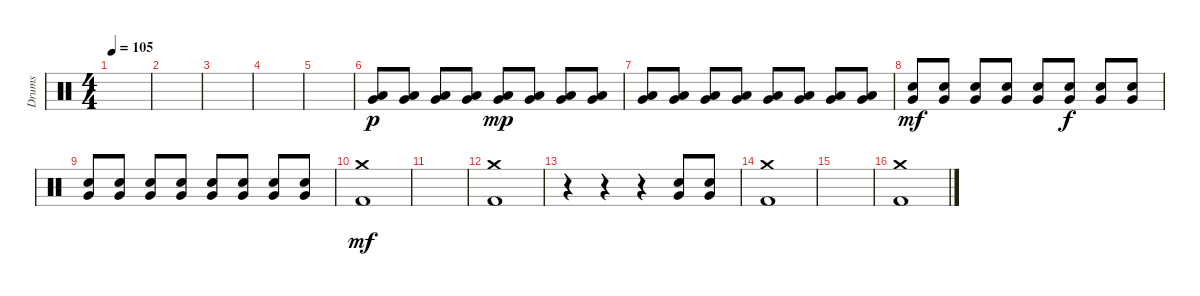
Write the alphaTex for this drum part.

\track ("Drums" "Drums") {instrument percussion}
\staff {score}
\articulation defaults
\ts (4 4)
\tempo 105
\clef neutral
\ks c
|
|
|
|
|
("Very Low Tom (hit)" "Low Floor Tom (hit)").8{dy p} ("Very Low Tom (hit)" "Low Floor Tom (hit)").8 ("Very Low Tom (hit)" "Low Floor Tom (hit)").8 ("Very Low Tom (hit)" "Low Floor Tom (hit)").8 ("Very Low Tom (hit)" "Low Floor Tom (hit)").8{dy mp} ("Very Low Tom (hit)" "Low Floor Tom (hit)").8 ("Very Low Tom (hit)" "Low Floor Tom (hit)").8 ("Very Low Tom (hit)" "Low Floor Tom (hit)").8 |
("Very Low Tom (hit)" "Low Floor Tom (hit)").8 ("Very Low Tom (hit)" "Low Floor Tom (hit)").8 ("Very Low Tom (hit)" "Low Floor Tom (hit)").8 ("Very Low Tom (hit)" "Low Floor Tom (hit)").8 ("Very Low Tom (hit)" "Low Floor Tom (hit)").8 ("Very Low Tom (hit)" "Low Floor Tom (hit)").8 ("Very Low Tom (hit)" "Low Floor Tom (hit)").8 ("Very Low Tom (hit)" "Low Floor Tom (hit)").8 |
("Very Low Tom (hit)" "Snare (hit) 2").8{dy mf} ("Very Low Tom (hit)" "Snare (hit) 2").8 ("Very Low Tom (hit)" "Snare (hit) 2").8 ("Very Low Tom (hit)" "Snare (hit) 2").8 ("Very Low Tom (hit)" "Snare (hit) 2").8 ("Very Low Tom (hit)" "Snare (hit) 2").8{dy f} ("Very Low Tom (hit)" "Snare (hit) 2").8 ("Very Low Tom (hit)" "Snare (hit) 2").8 |
("Very Low Tom (hit)" "Snare (hit) 2").8 ("Very Low Tom (hit)" "Snare (hit) 2").8 ("Very Low Tom (hit)" "Snare (hit) 2").8 ("Very Low Tom (hit)" "Snare (hit) 2").8 ("Very Low Tom (hit)" "Snare (hit) 2").8 ("Very Low Tom (hit)" "Snare (hit) 2").8 ("Very Low Tom (hit)" "Snare (hit) 2").8 ("Very Low Tom (hit)" "Snare (hit) 2").8 |
("Crash medium (hit)" "Kick (hit) 2").1{dy mf} |
|
("Crash medium (hit)" "Kick (hit) 2").1 |
r.4 r.4 r.4 ("Very Low Tom (hit)" "Snare (hit) 2").8 ("Very Low Tom (hit)" "Snare (hit) 2").8 |
("Crash medium (hit)" "Kick (hit) 2").1 |
|
("Crash medium (hit)" "Kick (hit) 2").1
